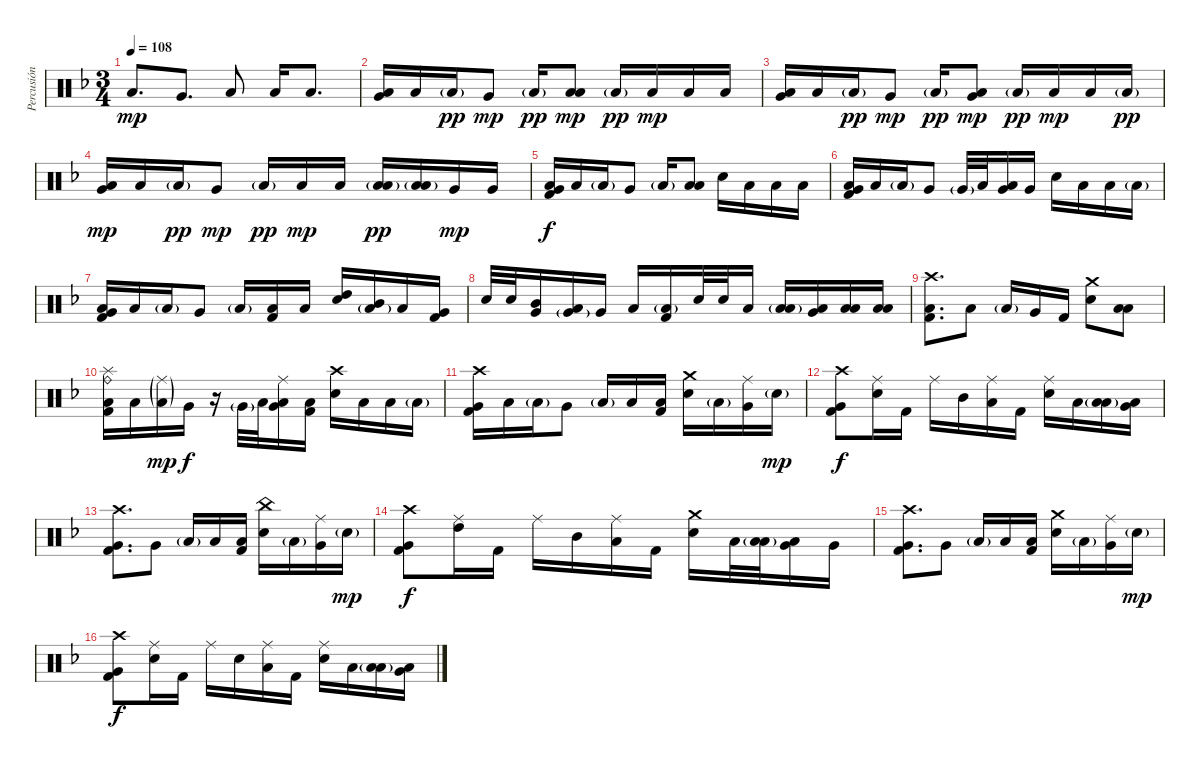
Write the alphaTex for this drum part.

\track ("Percusión" "Percusión") {instrument percussion}
\staff {score}
\articulation defaults
\ts (3 4)
\tempo 108
\clef neutral
\ks f "Low Floor Tom (hit)".8{d dy mp} "Very Low Tom (hit)".8{d} "Low Floor Tom (hit)".8 "Low Tom (hit)".16 "Low Floor Tom (hit)".8{d}
|
("Very Low Tom (hit)" "Low Floor Tom (hit)").16 "Low Floor Tom (hit)".16 "Low Floor Tom (hit)"{g}.16{dy pp} "Very Low Tom (hit)".8{dy mp} "Low Floor Tom (hit)"{g}.16{dy pp} ("Low Tom (hit)" "Low Floor Tom (hit)").8{dy mp} "Low Floor Tom (hit)"{g}.16{dy pp} "Low Tom (hit)".16{dy mp} "Low Floor Tom (hit)".16 "Low Floor Tom (hit)".16 |
("Very Low Tom (hit)" "Low Floor Tom (hit)").16 "Low Floor Tom (hit)".16 "Low Floor Tom (hit)"{g}.16{dy pp} "Very Low Tom (hit)".8{dy mp} "Low Floor Tom (hit)"{g}.16{dy pp} ("Very Low Tom (hit)" "Low Floor Tom (hit)").8{dy mp} "Low Floor Tom (hit)"{g}.16{dy pp} "Low Tom (hit)".16{dy mp} "Low Floor Tom (hit)".16 "Low Floor Tom (hit)"{g}.16{dy pp} |
("Very Low Tom (hit)" "Low Floor Tom (hit)").16{dy mp} "Low Floor Tom (hit)".16 "Low Floor Tom (hit)"{g}.16{dy pp} "Very Low Tom (hit)".8{dy mp} "Low Floor Tom (hit)"{g}.16{dy pp} "Low Floor Tom (hit)".16{dy mp} "Low Floor Tom (hit)".16 ("Low Tom (hit)" "Low Floor Tom (hit)"{g}).16{dy pp} ("Low Tom (hit)" "Low Floor Tom (hit)"{g}).16 "Very Low Tom (hit)".16{dy mp} "Very Low Tom (hit)".16 |
("Very Low Tom (hit)" "Low Floor Tom (hit)" "Kick (hit) 2").16{dy f} "Low Floor Tom (hit)".16 "Low Floor Tom (hit)"{g}.16 "Very Low Tom (hit)".8 "Low Floor Tom (hit)"{g}.16 ("Low Tom (hit)" "Low Floor Tom (hit)").8 "Snare (hit) 2".16 "Low Tom (hit)".16 "Low Floor Tom (hit)".16 "Low Floor Tom (hit)".16 |
("Very Low Tom (hit)" "Low Floor Tom (hit)" "Kick (hit) 2").16 "Low Floor Tom (hit)".16 "Low Floor Tom (hit)"{g}.16 "Very Low Tom (hit)".8 "Very Low Tom (hit)"{g}.32 "Low Tom (hit)".32 ("Very Low Tom (hit)" "Low Floor Tom (hit)").16 "Very Low Tom (hit)".16 "Snare (hit) 2".16 "Low Tom (hit)".16 "Low Floor Tom (hit)".16 "Low Floor Tom (hit)"{g}.16 |
("Very Low Tom (hit)" "Low Floor Tom (hit)" "Kick (hit) 2").16 "Low Floor Tom (hit)".16 "Low Floor Tom (hit)"{g}.16 "Very Low Tom (hit)".8 "Low Floor Tom (hit)"{g}.16 ("Low Floor Tom (hit)" "Kick (hit) 2").16 "Low Floor Tom (hit)".16 ("High Tom (hit)" "Snare (hit) 2").16 ("Mid Tom (hit)" "Low Floor Tom (hit)"{g}).16 "Low Tom (hit)".16 ("Very Low Tom (hit)" "Kick (hit) 2").16 |
"Snare (hit) 2".32 "Snare (hit) 2".32 ("Mid Tom (hit)" "Very Low Tom (hit)").16 ("Low Tom (hit)" "Very Low Tom (hit)"{g}).16 "Very Low Tom (hit)".16 "Low Floor Tom (hit)".16 ("Low Floor Tom (hit)"{g} "Kick (hit) 2").16 "Snare (hit) 2".32 "Snare (hit) 2".32 "Low Tom (hit)".16 ("Low Tom (hit)" "Low Floor Tom (hit)"{g}).16 ("Very Low Tom (hit)" "Low Floor Tom (hit)").16 ("Low Floor Tom (hit)" "Low Floor Tom (hit)").16 ("Low Floor Tom (hit)" "Low Floor Tom (hit)").16 |
("Crash high (hit)" "Low Floor Tom (hit)" "Kick (hit) 2").8{d} "Low Floor Tom (hit)".8 "Low Floor Tom (hit)"{g}.16 "Very Low Tom (hit)".16 "Kick (hit) 2".16 ("Crash medium (hit)" "Snare (hit) 2").8 ("Low Tom (hit)" "Low Floor Tom (hit)").8 |
("Ride (bell)" "Splash (hit)" "Low Floor Tom (hit)" "Kick (hit) 2").16 "Low Floor Tom (hit)".16 ("Ride (middle)"{g} "Low Floor Tom (hit)"{g}).16{dy mp} "Very Low Tom (hit)".16{dy f} r.16 "Very Low Tom (hit)"{g}.32 "Low Tom (hit)".32 ("Ride (middle)" "Very Low Tom (hit)" "Low Floor Tom (hit)").16 ("Low Tom (hit)" "Kick (hit) 2").16 ("Crash high (hit)" "Snare (hit) 2").16 "Low Tom (hit)".16 "Low Floor Tom (hit)".16 "Low Floor Tom (hit)"{g}.16 |
("Crash high (hit)" "Very Low Tom (hit)" "Kick (hit) 2").16 "Low Floor Tom (hit)".16 "Low Floor Tom (hit)"{g}.16 "Very Low Tom (hit)".8 "Low Floor Tom (hit)"{g}.16 "Low Tom (hit)".16 ("Low Floor Tom (hit)" "Kick (hit) 2").16 ("Crash medium (hit)" "Snare (hit) 2").16 "Low Floor Tom (hit)"{g}.16 ("Ride (middle)" "Very Low Tom (hit)").16 "Snare (hit) 2"{g}.16{dy mp} |
("Crash high (hit)" "Very Low Tom (hit)" "Kick (hit) 2").8{dy f} ("Ride (middle)" "Snare (hit) 2").16 "Kick (hit) 2".16 "Ride (middle)".16 "Mid Tom (hit)".16 ("Ride (middle)" "Low Tom (hit)").16 "Kick (hit) 2".16 ("Ride (middle)" "Snare (hit) 2").16 "Low Tom (hit)".16 ("Low Tom (hit)" "Low Floor Tom (hit)"{g}).16 ("Very Low Tom (hit)" "Low Floor Tom (hit)").16 |
("Crash high (hit)" "Very Low Tom (hit)" "Kick (hit) 2").8{d} "Very Low Tom (hit)".8 "Low Floor Tom (hit)"{g}.16 "Low Tom (hit)".16 ("Low Floor Tom (hit)" "Kick (hit) 2").16 ("China (hit)" "Snare (hit) 2").16 "Low Floor Tom (hit)"{g}.16 ("Ride (middle)" "Very Low Tom (hit)").16 "Snare (hit) 2"{g}.16{dy mp} |
("Crash high (hit)" "Very Low Tom (hit)" "Kick (hit) 2").8{dy f} ("Ride (middle)" "High Tom (hit)").16 "Kick (hit) 2".16 "Ride (middle)".16 "Mid Tom (hit)".16 ("Ride (middle)" "Low Tom (hit)").16 "Kick (hit) 2".16 ("Crash medium (hit)" "Snare (hit) 2").16 "Low Tom (hit)".32 ("Low Tom (hit)" "Low Floor Tom (hit)"{g}).32 ("Very Low Tom (hit)" "Low Floor Tom (hit)").16 "Very Low Tom (hit)".16 |
("Crash high (hit)" "Very Low Tom (hit)" "Kick (hit) 2").8{d} "Very Low Tom (hit)".8 "Low Floor Tom (hit)"{g}.16 "Low Tom (hit)".16 ("Low Floor Tom (hit)" "Kick (hit) 2").16 ("Crash medium (hit)" "Snare (hit) 2").16 "Low Floor Tom (hit)"{g}.16 ("Ride (middle)" "Very Low Tom (hit)").16 "Snare (hit) 2"{g}.16{dy mp} |
("Crash high (hit)" "Very Low Tom (hit)" "Kick (hit) 2").8{dy f} ("Ride (middle)" "Snare (hit) 2").16 "Kick (hit) 2".16 "Ride (middle)".16 "Snare (hit) 2".16 ("Ride (middle)" "Low Tom (hit)").16 "Kick (hit) 2".16 ("Ride (middle)" "Snare (hit) 2").16 "Low Tom (hit)".16 ("Low Tom (hit)" "Low Floor Tom (hit)"{g}).16 ("Very Low Tom (hit)" "Low Floor Tom (hit)").16
